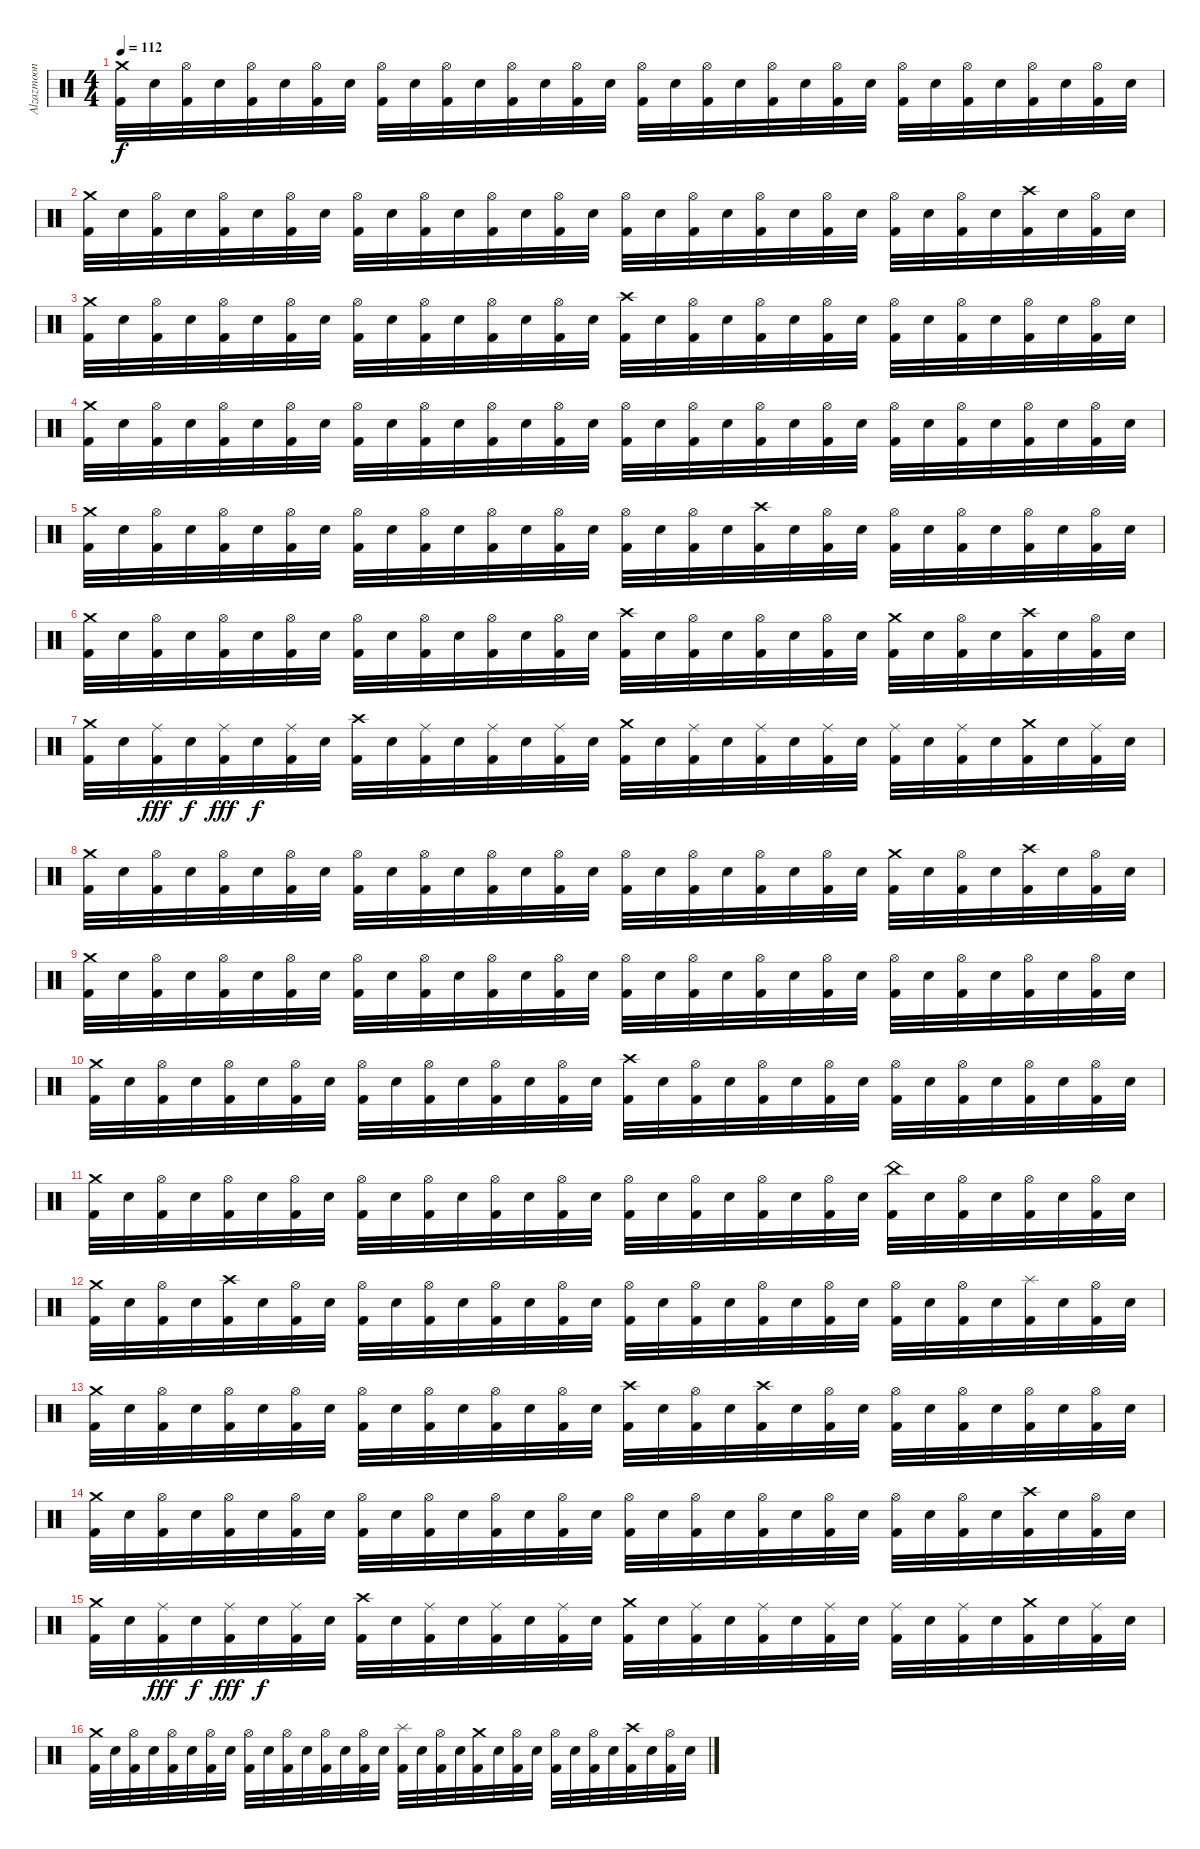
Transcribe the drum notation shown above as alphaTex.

\track ("Alzazmoon" "Alzazmoon") {instrument percussion}
\staff {score}
\articulation defaults
\ts (4 4)
\tempo 112
\clef neutral
\ks c
("Crash medium (hit)" "Kick (hit) 2").32{dy f} "Snare (hit) 2".32 ("Hi-Hat (open)" "Kick (hit) 2").32 "Snare (hit) 2".32 ("Hi-Hat (open)" "Kick (hit) 2").32 "Snare (hit) 2".32 ("Hi-Hat (open)" "Kick (hit) 2").32 "Snare (hit) 2".32 ("Hi-Hat (open)" "Kick (hit) 2").32 "Snare (hit) 2".32 ("Hi-Hat (open)" "Kick (hit) 2").32 "Snare (hit) 2".32 ("Hi-Hat (open)" "Kick (hit) 2").32 "Snare (hit) 2".32 ("Hi-Hat (open)" "Kick (hit) 2").32 "Snare (hit) 2".32 ("Hi-Hat (open)" "Kick (hit) 2").32 "Snare (hit) 2".32 ("Hi-Hat (open)" "Kick (hit) 2").32 "Snare (hit) 2".32 ("Hi-Hat (open)" "Kick (hit) 2").32 "Snare (hit) 2".32 ("Hi-Hat (open)" "Kick (hit) 2").32 "Snare (hit) 2".32 ("Hi-Hat (open)" "Kick (hit) 2").32 "Snare (hit) 2".32 ("Hi-Hat (open)" "Kick (hit) 2").32 "Snare (hit) 2".32 ("Hi-Hat (open)" "Kick (hit) 2").32 "Snare (hit) 2".32 ("Hi-Hat (open)" "Kick (hit) 2").32 "Snare (hit) 2".32 |
("Crash medium (hit)" "Kick (hit) 2").32 "Snare (hit) 2".32 ("Hi-Hat (open)" "Kick (hit) 2").32 "Snare (hit) 2".32 ("Hi-Hat (open)" "Kick (hit) 2").32 "Snare (hit) 2".32 ("Hi-Hat (open)" "Kick (hit) 2").32 "Snare (hit) 2".32 ("Hi-Hat (open)" "Kick (hit) 2").32 "Snare (hit) 2".32 ("Hi-Hat (open)" "Kick (hit) 2").32 "Snare (hit) 2".32 ("Hi-Hat (open)" "Kick (hit) 2").32 "Snare (hit) 2".32 ("Hi-Hat (open)" "Kick (hit) 2").32 "Snare (hit) 2".32 ("Hi-Hat (open)" "Kick (hit) 2").32 "Snare (hit) 2".32 ("Hi-Hat (open)" "Kick (hit) 2").32 "Snare (hit) 2".32 ("Hi-Hat (open)" "Kick (hit) 2").32 "Snare (hit) 2".32 ("Hi-Hat (open)" "Kick (hit) 2").32 "Snare (hit) 2".32 ("Hi-Hat (open)" "Kick (hit) 2").32 "Snare (hit) 2".32 ("Hi-Hat (open)" "Kick (hit) 2").32 "Snare (hit) 2".32 ("Crash high (hit)" "Kick (hit) 2").32 "Snare (hit) 2".32 ("Hi-Hat (open)" "Kick (hit) 2").32 "Snare (hit) 2".32 |
("Crash medium (hit)" "Kick (hit) 2").32 "Snare (hit) 2".32 ("Hi-Hat (open)" "Kick (hit) 2").32 "Snare (hit) 2".32 ("Hi-Hat (open)" "Kick (hit) 2").32 "Snare (hit) 2".32 ("Hi-Hat (open)" "Kick (hit) 2").32 "Snare (hit) 2".32 ("Hi-Hat (open)" "Kick (hit) 2").32 "Snare (hit) 2".32 ("Hi-Hat (open)" "Kick (hit) 2").32 "Snare (hit) 2".32 ("Hi-Hat (open)" "Kick (hit) 2").32 "Snare (hit) 2".32 ("Hi-Hat (open)" "Kick (hit) 2").32 "Snare (hit) 2".32 ("Crash high (hit)" "Kick (hit) 2").32 "Snare (hit) 2".32 ("Hi-Hat (open)" "Kick (hit) 2").32 "Snare (hit) 2".32 ("Hi-Hat (open)" "Kick (hit) 2").32 "Snare (hit) 2".32 ("Hi-Hat (open)" "Kick (hit) 2").32 "Snare (hit) 2".32 ("Hi-Hat (open)" "Kick (hit) 2").32 "Snare (hit) 2".32 ("Hi-Hat (open)" "Kick (hit) 2").32 "Snare (hit) 2".32 ("Hi-Hat (open)" "Kick (hit) 2").32 "Snare (hit) 2".32 ("Hi-Hat (open)" "Kick (hit) 2").32 "Snare (hit) 2".32 |
("Crash medium (hit)" "Kick (hit) 2").32 "Snare (hit) 2".32 ("Hi-Hat (open)" "Kick (hit) 2").32 "Snare (hit) 2".32 ("Hi-Hat (open)" "Kick (hit) 2").32 "Snare (hit) 2".32 ("Hi-Hat (open)" "Kick (hit) 2").32 "Snare (hit) 2".32 ("Hi-Hat (open)" "Kick (hit) 2").32 "Snare (hit) 2".32 ("Hi-Hat (open)" "Kick (hit) 2").32 "Snare (hit) 2".32 ("Hi-Hat (open)" "Kick (hit) 2").32 "Snare (hit) 2".32 ("Hi-Hat (open)" "Kick (hit) 2").32 "Snare (hit) 2".32 ("Hi-Hat (open)" "Kick (hit) 2").32 "Snare (hit) 2".32 ("Hi-Hat (open)" "Kick (hit) 2").32 "Snare (hit) 2".32 ("Hi-Hat (open)" "Kick (hit) 2").32 "Snare (hit) 2".32 ("Hi-Hat (open)" "Kick (hit) 2").32 "Snare (hit) 2".32 ("Hi-Hat (open)" "Kick (hit) 2").32 "Snare (hit) 2".32 ("Hi-Hat (open)" "Kick (hit) 2").32 "Snare (hit) 2".32 ("Hi-Hat (open)" "Kick (hit) 2").32 "Snare (hit) 2".32 ("Hi-Hat (open)" "Kick (hit) 2").32 "Snare (hit) 2".32 |
("Crash medium (hit)" "Kick (hit) 2").32 "Snare (hit) 2".32 ("Hi-Hat (open)" "Kick (hit) 2").32 "Snare (hit) 2".32 ("Hi-Hat (open)" "Kick (hit) 2").32 "Snare (hit) 2".32 ("Hi-Hat (open)" "Kick (hit) 2").32 "Snare (hit) 2".32 ("Hi-Hat (open)" "Kick (hit) 2").32 "Snare (hit) 2".32 ("Hi-Hat (open)" "Kick (hit) 2").32 "Snare (hit) 2".32 ("Hi-Hat (open)" "Kick (hit) 2").32 "Snare (hit) 2".32 ("Hi-Hat (open)" "Kick (hit) 2").32 "Snare (hit) 2".32 ("Hi-Hat (open)" "Kick (hit) 2").32 "Snare (hit) 2".32 ("Hi-Hat (open)" "Kick (hit) 2").32 "Snare (hit) 2".32 ("Crash high (hit)" "Kick (hit) 2").32 "Snare (hit) 2".32 ("Hi-Hat (open)" "Kick (hit) 2").32 "Snare (hit) 2".32 ("Hi-Hat (open)" "Kick (hit) 2").32 "Snare (hit) 2".32 ("Hi-Hat (open)" "Kick (hit) 2").32 "Snare (hit) 2".32 ("Hi-Hat (open)" "Kick (hit) 2").32 "Snare (hit) 2".32 ("Hi-Hat (open)" "Kick (hit) 2").32 "Snare (hit) 2".32 |
("Crash medium (hit)" "Kick (hit) 2").32 "Snare (hit) 2".32 ("Hi-Hat (open)" "Kick (hit) 2").32 "Snare (hit) 2".32 ("Hi-Hat (open)" "Kick (hit) 2").32 "Snare (hit) 2".32 ("Hi-Hat (open)" "Kick (hit) 2").32 "Snare (hit) 2".32 ("Hi-Hat (open)" "Kick (hit) 2").32 "Snare (hit) 2".32 ("Hi-Hat (open)" "Kick (hit) 2").32 "Snare (hit) 2".32 ("Hi-Hat (open)" "Kick (hit) 2").32 "Snare (hit) 2".32 ("Hi-Hat (open)" "Kick (hit) 2").32 "Snare (hit) 2".32 ("Crash high (hit)" "Kick (hit) 2").32 "Snare (hit) 2".32 ("Hi-Hat (open)" "Kick (hit) 2").32 "Snare (hit) 2".32 ("Hi-Hat (open)" "Kick (hit) 2").32 "Snare (hit) 2".32 ("Hi-Hat (open)" "Kick (hit) 2").32 "Snare (hit) 2".32 ("Crash medium (hit)" "Kick (hit) 2").32 "Snare (hit) 2".32 ("Hi-Hat (open)" "Kick (hit) 2").32 "Snare (hit) 2".32 ("Crash high (hit)" "Kick (hit) 2").32 "Snare (hit) 2".32 ("Hi-Hat (open)" "Kick (hit) 2").32 "Snare (hit) 2".32 |
("Crash medium (hit)" "Kick (hit) 2").32 "Snare (hit) 2".32 ("Ride (middle)" "Kick (hit) 2").32{dy fff} "Snare (hit) 2".32{dy f} ("Ride (middle)" "Kick (hit) 2").32{dy fff} "Snare (hit) 2".32{dy f} ("Ride (middle)" "Kick (hit) 2").32 "Snare (hit) 2".32 ("Crash high (hit)" "Kick (hit) 2").32 "Snare (hit) 2".32 ("Ride (middle)" "Kick (hit) 2").32 "Snare (hit) 2".32 ("Ride (middle)" "Kick (hit) 2").32 "Snare (hit) 2".32 ("Ride (middle)" "Kick (hit) 2").32 "Snare (hit) 2".32 ("Crash medium (hit)" "Kick (hit) 2").32 "Snare (hit) 2".32 ("Ride (middle)" "Kick (hit) 2").32 "Snare (hit) 2".32 ("Ride (middle)" "Kick (hit) 2").32 "Snare (hit) 2".32 ("Ride (middle)" "Kick (hit) 2").32 "Snare (hit) 2".32 ("Ride (middle)" "Kick (hit) 2").32 "Snare (hit) 2".32 ("Ride (middle)" "Kick (hit) 2").32 "Snare (hit) 2".32 ("Crash medium (hit)" "Kick (hit) 2").32 "Snare (hit) 2".32 ("Ride (middle)" "Kick (hit) 2").32 "Snare (hit) 2".32 |
("Crash medium (hit)" "Kick (hit) 2").32 "Snare (hit) 2".32 ("Hi-Hat (open)" "Kick (hit) 2").32 "Snare (hit) 2".32 ("Hi-Hat (open)" "Kick (hit) 2").32 "Snare (hit) 2".32 ("Hi-Hat (open)" "Kick (hit) 2").32 "Snare (hit) 2".32 ("Hi-Hat (open)" "Kick (hit) 2").32 "Snare (hit) 2".32 ("Hi-Hat (open)" "Kick (hit) 2").32 "Snare (hit) 2".32 ("Hi-Hat (open)" "Kick (hit) 2").32 "Snare (hit) 2".32 ("Hi-Hat (open)" "Kick (hit) 2").32 "Snare (hit) 2".32 ("Hi-Hat (open)" "Kick (hit) 2").32 "Snare (hit) 2".32 ("Hi-Hat (open)" "Kick (hit) 2").32 "Snare (hit) 2".32 ("Hi-Hat (open)" "Kick (hit) 2").32 "Snare (hit) 2".32 ("Hi-Hat (open)" "Kick (hit) 2").32 "Snare (hit) 2".32 ("Crash medium (hit)" "Kick (hit) 2").32 "Snare (hit) 2".32 ("Hi-Hat (open)" "Kick (hit) 2").32 "Snare (hit) 2".32 ("Crash high (hit)" "Kick (hit) 2").32 "Snare (hit) 2".32 ("Hi-Hat (open)" "Kick (hit) 2").32 "Snare (hit) 2".32 |
("Crash medium (hit)" "Kick (hit) 2").32 "Snare (hit) 2".32 ("Hi-Hat (open)" "Kick (hit) 2").32 "Snare (hit) 2".32 ("Hi-Hat (open)" "Kick (hit) 2").32 "Snare (hit) 2".32 ("Hi-Hat (open)" "Kick (hit) 2").32 "Snare (hit) 2".32 ("Hi-Hat (open)" "Kick (hit) 2").32 "Snare (hit) 2".32 ("Hi-Hat (open)" "Kick (hit) 2").32 "Snare (hit) 2".32 ("Hi-Hat (open)" "Kick (hit) 2").32 "Snare (hit) 2".32 ("Hi-Hat (open)" "Kick (hit) 2").32 "Snare (hit) 2".32 ("Hi-Hat (open)" "Kick (hit) 2").32 "Snare (hit) 2".32 ("Hi-Hat (open)" "Kick (hit) 2").32 "Snare (hit) 2".32 ("Hi-Hat (open)" "Kick (hit) 2").32 "Snare (hit) 2".32 ("Hi-Hat (open)" "Kick (hit) 2").32 "Snare (hit) 2".32 ("Hi-Hat (open)" "Kick (hit) 2").32 "Snare (hit) 2".32 ("Hi-Hat (open)" "Kick (hit) 2").32 "Snare (hit) 2".32 ("Hi-Hat (open)" "Kick (hit) 2").32 "Snare (hit) 2".32 ("Hi-Hat (open)" "Kick (hit) 2").32 "Snare (hit) 2".32 |
("Crash medium (hit)" "Kick (hit) 2").32 "Snare (hit) 2".32 ("Hi-Hat (open)" "Kick (hit) 2").32 "Snare (hit) 2".32 ("Hi-Hat (open)" "Kick (hit) 2").32 "Snare (hit) 2".32 ("Hi-Hat (open)" "Kick (hit) 2").32 "Snare (hit) 2".32 ("Hi-Hat (open)" "Kick (hit) 2").32 "Snare (hit) 2".32 ("Hi-Hat (open)" "Kick (hit) 2").32 "Snare (hit) 2".32 ("Hi-Hat (open)" "Kick (hit) 2").32 "Snare (hit) 2".32 ("Hi-Hat (open)" "Kick (hit) 2").32 "Snare (hit) 2".32 ("Crash high (hit)" "Kick (hit) 2").32 "Snare (hit) 2".32 ("Hi-Hat (open)" "Kick (hit) 2").32 "Snare (hit) 2".32 ("Hi-Hat (open)" "Kick (hit) 2").32 "Snare (hit) 2".32 ("Hi-Hat (open)" "Kick (hit) 2").32 "Snare (hit) 2".32 ("Hi-Hat (open)" "Kick (hit) 2").32 "Snare (hit) 2".32 ("Hi-Hat (open)" "Kick (hit) 2").32 "Snare (hit) 2".32 ("Hi-Hat (open)" "Kick (hit) 2").32 "Snare (hit) 2".32 ("Hi-Hat (open)" "Kick (hit) 2").32 "Snare (hit) 2".32 |
("Crash medium (hit)" "Kick (hit) 2").32 "Snare (hit) 2".32 ("Hi-Hat (open)" "Kick (hit) 2").32 "Snare (hit) 2".32 ("Hi-Hat (open)" "Kick (hit) 2").32 "Snare (hit) 2".32 ("Hi-Hat (open)" "Kick (hit) 2").32 "Snare (hit) 2".32 ("Hi-Hat (open)" "Kick (hit) 2").32 "Snare (hit) 2".32 ("Hi-Hat (open)" "Kick (hit) 2").32 "Snare (hit) 2".32 ("Hi-Hat (open)" "Kick (hit) 2").32 "Snare (hit) 2".32 ("Hi-Hat (open)" "Kick (hit) 2").32 "Snare (hit) 2".32 ("Hi-Hat (open)" "Kick (hit) 2").32 "Snare (hit) 2".32 ("Hi-Hat (open)" "Kick (hit) 2").32 "Snare (hit) 2".32 ("Hi-Hat (open)" "Kick (hit) 2").32 "Snare (hit) 2".32 ("Hi-Hat (open)" "Kick (hit) 2").32 "Snare (hit) 2".32 ("China (hit)" "Kick (hit) 2").32 "Snare (hit) 2".32 ("Hi-Hat (open)" "Kick (hit) 2").32 "Snare (hit) 2".32 ("Hi-Hat (open)" "Kick (hit) 2").32 "Snare (hit) 2".32 ("Hi-Hat (open)" "Kick (hit) 2").32 "Snare (hit) 2".32 |
("Crash medium (hit)" "Kick (hit) 2").32 "Snare (hit) 2".32 ("Hi-Hat (open)" "Kick (hit) 2").32 "Snare (hit) 2".32 ("Crash high (hit)" "Kick (hit) 2").32 "Snare (hit) 2".32 ("Hi-Hat (open)" "Kick (hit) 2").32 "Snare (hit) 2".32 ("Hi-Hat (open)" "Kick (hit) 2").32 "Snare (hit) 2".32 ("Hi-Hat (open)" "Kick (hit) 2").32 "Snare (hit) 2".32 ("Hi-Hat (open)" "Kick (hit) 2").32 "Snare (hit) 2".32 ("Hi-Hat (open)" "Kick (hit) 2").32 "Snare (hit) 2".32 ("Hi-Hat (open)" "Kick (hit) 2").32 "Snare (hit) 2".32 ("Hi-Hat (open)" "Kick (hit) 2").32 "Snare (hit) 2".32 ("Hi-Hat (open)" "Kick (hit) 2").32 "Snare (hit) 2".32 ("Hi-Hat (open)" "Kick (hit) 2").32 "Snare (hit) 2".32 ("Hi-Hat (open)" "Kick (hit) 2").32 "Snare (hit) 2".32 ("Hi-Hat (open)" "Kick (hit) 2").32 "Snare (hit) 2".32 ("Splash (hit)" "Kick (hit) 2").32 "Snare (hit) 2".32 ("Hi-Hat (open)" "Kick (hit) 2").32 "Snare (hit) 2".32 |
("Crash medium (hit)" "Kick (hit) 2").32 "Snare (hit) 2".32 ("Hi-Hat (open)" "Kick (hit) 2").32 "Snare (hit) 2".32 ("Hi-Hat (open)" "Kick (hit) 2").32 "Snare (hit) 2".32 ("Hi-Hat (open)" "Kick (hit) 2").32 "Snare (hit) 2".32 ("Hi-Hat (open)" "Kick (hit) 2").32 "Snare (hit) 2".32 ("Hi-Hat (open)" "Kick (hit) 2").32 "Snare (hit) 2".32 ("Hi-Hat (open)" "Kick (hit) 2").32 "Snare (hit) 2".32 ("Hi-Hat (open)" "Kick (hit) 2").32 "Snare (hit) 2".32 ("Crash high (hit)" "Kick (hit) 2").32 "Snare (hit) 2".32 ("Hi-Hat (open)" "Kick (hit) 2").32 "Snare (hit) 2".32 ("Crash high (hit)" "Kick (hit) 2").32 "Snare (hit) 2".32 ("Hi-Hat (open)" "Kick (hit) 2").32 "Snare (hit) 2".32 ("Hi-Hat (open)" "Kick (hit) 2").32 "Snare (hit) 2".32 ("Hi-Hat (open)" "Kick (hit) 2").32 "Snare (hit) 2".32 ("Hi-Hat (open)" "Kick (hit) 2").32 "Snare (hit) 2".32 ("Hi-Hat (open)" "Kick (hit) 2").32 "Snare (hit) 2".32 |
("Crash medium (hit)" "Kick (hit) 2").32 "Snare (hit) 2".32 ("Hi-Hat (open)" "Kick (hit) 2").32 "Snare (hit) 2".32 ("Hi-Hat (open)" "Kick (hit) 2").32 "Snare (hit) 2".32 ("Hi-Hat (open)" "Kick (hit) 2").32 "Snare (hit) 2".32 ("Hi-Hat (open)" "Kick (hit) 2").32 "Snare (hit) 2".32 ("Hi-Hat (open)" "Kick (hit) 2").32 "Snare (hit) 2".32 ("Hi-Hat (open)" "Kick (hit) 2").32 "Snare (hit) 2".32 ("Hi-Hat (open)" "Kick (hit) 2").32 "Snare (hit) 2".32 ("Hi-Hat (open)" "Kick (hit) 2").32 "Snare (hit) 2".32 ("Hi-Hat (open)" "Kick (hit) 2").32 "Snare (hit) 2".32 ("Hi-Hat (open)" "Kick (hit) 2").32 "Snare (hit) 2".32 ("Hi-Hat (open)" "Kick (hit) 2").32 "Snare (hit) 2".32 ("Hi-Hat (open)" "Kick (hit) 2").32 "Snare (hit) 2".32 ("Hi-Hat (open)" "Kick (hit) 2").32 "Snare (hit) 2".32 ("Crash high (hit)" "Kick (hit) 2").32 "Snare (hit) 2".32 ("Hi-Hat (open)" "Kick (hit) 2").32 "Snare (hit) 2".32 |
("Crash medium (hit)" "Kick (hit) 2").32 "Snare (hit) 2".32 ("Ride (middle)" "Kick (hit) 2").32{dy fff} "Snare (hit) 2".32{dy f} ("Ride (middle)" "Kick (hit) 2").32{dy fff} "Snare (hit) 2".32{dy f} ("Ride (middle)" "Kick (hit) 2").32 "Snare (hit) 2".32 ("Crash high (hit)" "Kick (hit) 2").32 "Snare (hit) 2".32 ("Ride (middle)" "Kick (hit) 2").32 "Snare (hit) 2".32 ("Ride (middle)" "Kick (hit) 2").32 "Snare (hit) 2".32 ("Ride (middle)" "Kick (hit) 2").32 "Snare (hit) 2".32 ("Crash medium (hit)" "Kick (hit) 2").32 "Snare (hit) 2".32 ("Ride (middle)" "Kick (hit) 2").32 "Snare (hit) 2".32 ("Ride (middle)" "Kick (hit) 2").32 "Snare (hit) 2".32 ("Ride (middle)" "Kick (hit) 2").32 "Snare (hit) 2".32 ("Ride (middle)" "Kick (hit) 2").32 "Snare (hit) 2".32 ("Ride (middle)" "Kick (hit) 2").32 "Snare (hit) 2".32 ("Crash medium (hit)" "Kick (hit) 2").32 "Snare (hit) 2".32 ("Ride (middle)" "Kick (hit) 2").32 "Snare (hit) 2".32 |
("Crash medium (hit)" "Kick (hit) 2").32 "Snare (hit) 2".32 ("Hi-Hat (open)" "Kick (hit) 2").32 "Snare (hit) 2".32 ("Hi-Hat (open)" "Kick (hit) 2").32 "Snare (hit) 2".32 ("Hi-Hat (open)" "Kick (hit) 2").32 "Snare (hit) 2".32 ("Hi-Hat (open)" "Kick (hit) 2").32 "Snare (hit) 2".32 ("Hi-Hat (open)" "Kick (hit) 2").32 "Snare (hit) 2".32 ("Hi-Hat (open)" "Kick (hit) 2").32 "Snare (hit) 2".32 ("Hi-Hat (open)" "Kick (hit) 2").32 "Snare (hit) 2".32 ("Splash (hit)" "Kick (hit) 2").32 "Snare (hit) 2".32 ("Hi-Hat (open)" "Kick (hit) 2").32 "Snare (hit) 2".32 ("Crash medium (hit)" "Kick (hit) 2").32 "Snare (hit) 2".32 ("Hi-Hat (open)" "Kick (hit) 2").32 "Snare (hit) 2".32 ("Hi-Hat (open)" "Kick (hit) 2").32 "Snare (hit) 2".32 ("Hi-Hat (open)" "Kick (hit) 2").32 "Snare (hit) 2".32 ("Crash high (hit)" "Kick (hit) 2").32 "Snare (hit) 2".32 ("Hi-Hat (open)" "Kick (hit) 2").32 "Snare (hit) 2".32
